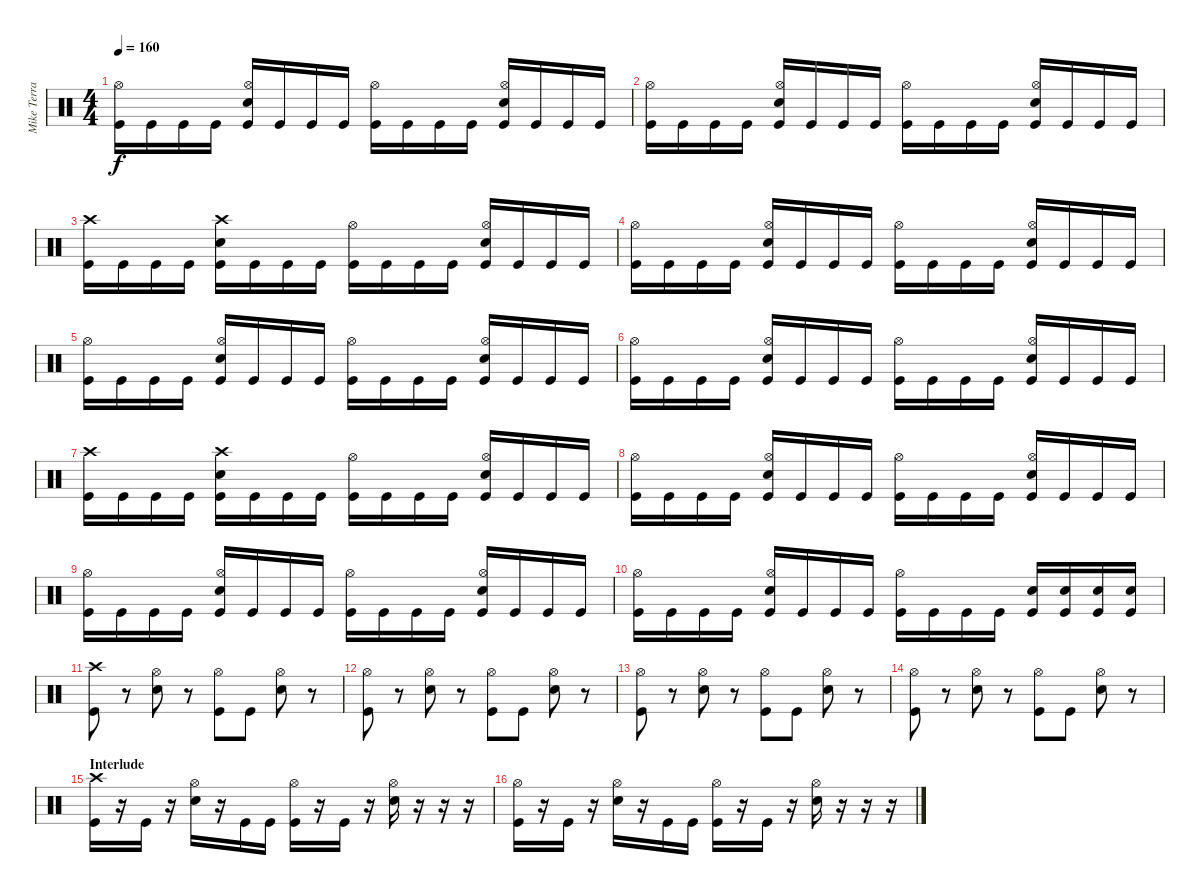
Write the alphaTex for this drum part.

\track ("Mike Terrana - Drums" "Mike Terra") {instrument percussion}
\staff {score}
\articulation defaults
\ts (4 4)
\tempo 160
\clef neutral
\ks c
("Kick (hit)" "Hi-Hat (open)").16{dy f} "Kick (hit)".16 "Kick (hit)".16 "Kick (hit)".16 ("Kick (hit)" "Electric Snare (hit)" "Hi-Hat (open)").16 "Kick (hit)".16 "Kick (hit)".16 "Kick (hit)".16 ("Kick (hit)" "Hi-Hat (open)").16 "Kick (hit)".16 "Kick (hit)".16 "Kick (hit)".16 ("Kick (hit)" "Electric Snare (hit)" "Hi-Hat (open)").16 "Kick (hit)".16 "Kick (hit)".16 "Kick (hit)".16 |
("Kick (hit)" "Hi-Hat (open)").16 "Kick (hit)".16 "Kick (hit)".16 "Kick (hit)".16 ("Kick (hit)" "Electric Snare (hit)" "Hi-Hat (open)").16 "Kick (hit)".16 "Kick (hit)".16 "Kick (hit)".16 ("Kick (hit)" "Hi-Hat (open)").16 "Kick (hit)".16 "Kick (hit)".16 "Kick (hit)".16 ("Kick (hit)" "Electric Snare (hit)" "Hi-Hat (open)").16 "Kick (hit)".16 "Kick (hit)".16 "Kick (hit)".16 |
("Kick (hit)" "Crash high (hit)").16 "Kick (hit)".16 "Kick (hit)".16 "Kick (hit)".16 ("Kick (hit)" "Electric Snare (hit)" "Crash high (hit)").16 "Kick (hit)".16 "Kick (hit)".16 "Kick (hit)".16 ("Kick (hit)" "Hi-Hat (open)").16 "Kick (hit)".16 "Kick (hit)".16 "Kick (hit)".16 ("Kick (hit)" "Electric Snare (hit)" "Hi-Hat (open)").16 "Kick (hit)".16 "Kick (hit)".16 "Kick (hit)".16 |
("Kick (hit)" "Hi-Hat (open)").16 "Kick (hit)".16 "Kick (hit)".16 "Kick (hit)".16 ("Kick (hit)" "Electric Snare (hit)" "Hi-Hat (open)").16 "Kick (hit)".16 "Kick (hit)".16 "Kick (hit)".16 ("Kick (hit)" "Hi-Hat (open)").16 "Kick (hit)".16 "Kick (hit)".16 "Kick (hit)".16 ("Kick (hit)" "Electric Snare (hit)" "Hi-Hat (open)").16 "Kick (hit)".16 "Kick (hit)".16 "Kick (hit)".16 |
("Kick (hit)" "Hi-Hat (open)").16 "Kick (hit)".16 "Kick (hit)".16 "Kick (hit)".16 ("Kick (hit)" "Electric Snare (hit)" "Hi-Hat (open)").16 "Kick (hit)".16 "Kick (hit)".16 "Kick (hit)".16 ("Kick (hit)" "Hi-Hat (open)").16 "Kick (hit)".16 "Kick (hit)".16 "Kick (hit)".16 ("Kick (hit)" "Electric Snare (hit)" "Hi-Hat (open)").16 "Kick (hit)".16 "Kick (hit)".16 "Kick (hit)".16 |
("Kick (hit)" "Hi-Hat (open)").16 "Kick (hit)".16 "Kick (hit)".16 "Kick (hit)".16 ("Kick (hit)" "Electric Snare (hit)" "Hi-Hat (open)").16 "Kick (hit)".16 "Kick (hit)".16 "Kick (hit)".16 ("Kick (hit)" "Hi-Hat (open)").16 "Kick (hit)".16 "Kick (hit)".16 "Kick (hit)".16 ("Kick (hit)" "Electric Snare (hit)" "Hi-Hat (open)").16 "Kick (hit)".16 "Kick (hit)".16 "Kick (hit)".16 |
("Kick (hit)" "Crash high (hit)").16 "Kick (hit)".16 "Kick (hit)".16 "Kick (hit)".16 ("Kick (hit)" "Electric Snare (hit)" "Crash high (hit)").16 "Kick (hit)".16 "Kick (hit)".16 "Kick (hit)".16 ("Kick (hit)" "Hi-Hat (open)").16 "Kick (hit)".16 "Kick (hit)".16 "Kick (hit)".16 ("Kick (hit)" "Electric Snare (hit)" "Hi-Hat (open)").16 "Kick (hit)".16 "Kick (hit)".16 "Kick (hit)".16 |
("Kick (hit)" "Hi-Hat (open)").16 "Kick (hit)".16 "Kick (hit)".16 "Kick (hit)".16 ("Kick (hit)" "Electric Snare (hit)" "Hi-Hat (open)").16 "Kick (hit)".16 "Kick (hit)".16 "Kick (hit)".16 ("Kick (hit)" "Hi-Hat (open)").16 "Kick (hit)".16 "Kick (hit)".16 "Kick (hit)".16 ("Kick (hit)" "Electric Snare (hit)" "Hi-Hat (open)").16 "Kick (hit)".16 "Kick (hit)".16 "Kick (hit)".16 |
("Kick (hit)" "Hi-Hat (open)").16 "Kick (hit)".16 "Kick (hit)".16 "Kick (hit)".16 ("Kick (hit)" "Electric Snare (hit)" "Hi-Hat (open)").16 "Kick (hit)".16 "Kick (hit)".16 "Kick (hit)".16 ("Kick (hit)" "Hi-Hat (open)").16 "Kick (hit)".16 "Kick (hit)".16 "Kick (hit)".16 ("Kick (hit)" "Electric Snare (hit)" "Hi-Hat (open)").16 "Kick (hit)".16 "Kick (hit)".16 "Kick (hit)".16 |
("Kick (hit)" "Hi-Hat (open)").16 "Kick (hit)".16 "Kick (hit)".16 "Kick (hit)".16 ("Kick (hit)" "Electric Snare (hit)" "Hi-Hat (open)").16 "Kick (hit)".16 "Kick (hit)".16 "Kick (hit)".16 ("Kick (hit)" "Hi-Hat (open)").16 "Kick (hit)".16 "Kick (hit)".16 "Kick (hit)".16 ("Kick (hit)" "Electric Snare (hit)").16 ("Kick (hit)" "Electric Snare (hit)").16 ("Kick (hit)" "Electric Snare (hit)").16 ("Kick (hit)" "Electric Snare (hit)").16 |
("Kick (hit)" "Crash high (hit)").8 r.8 ("Electric Snare (hit)" "Hi-Hat (open)").8 r.8 ("Kick (hit)" "Hi-Hat (open)").8 "Kick (hit)".8 ("Electric Snare (hit)" "Hi-Hat (open)").8 r.8 |
("Kick (hit)" "Hi-Hat (open)").8 r.8 ("Electric Snare (hit)" "Hi-Hat (open)").8 r.8 ("Kick (hit)" "Hi-Hat (open)").8 "Kick (hit)".8 ("Electric Snare (hit)" "Hi-Hat (open)").8 r.8 |
("Kick (hit)" "Hi-Hat (open)").8 r.8 ("Electric Snare (hit)" "Hi-Hat (open)").8 r.8 ("Kick (hit)" "Hi-Hat (open)").8 "Kick (hit)".8 ("Electric Snare (hit)" "Hi-Hat (open)").8 r.8 |
("Kick (hit)" "Hi-Hat (open)").8 r.8 ("Electric Snare (hit)" "Hi-Hat (open)").8 r.8 ("Kick (hit)" "Hi-Hat (open)").8 "Kick (hit)".8 ("Electric Snare (hit)" "Hi-Hat (open)").8 r.8 |
\section ("" "Interlude")
("Kick (hit)" "Crash high (hit)").16 r.16 "Kick (hit)".16 r.16 ("Electric Snare (hit)" "Hi-Hat (open)").16 r.16 "Kick (hit)".16 "Kick (hit)".16 ("Kick (hit)" "Hi-Hat (open)").16 r.16 "Kick (hit)".16 r.16 ("Electric Snare (hit)" "Hi-Hat (open)").16 r.16 r.16 r.16 |
("Kick (hit)" "Hi-Hat (open)").16 r.16 "Kick (hit)".16 r.16 ("Electric Snare (hit)" "Hi-Hat (open)").16 r.16 "Kick (hit)".16 "Kick (hit)".16 ("Kick (hit)" "Hi-Hat (open)").16 r.16 "Kick (hit)".16 r.16 ("Electric Snare (hit)" "Hi-Hat (open)").16 r.16 r.16 r.16
